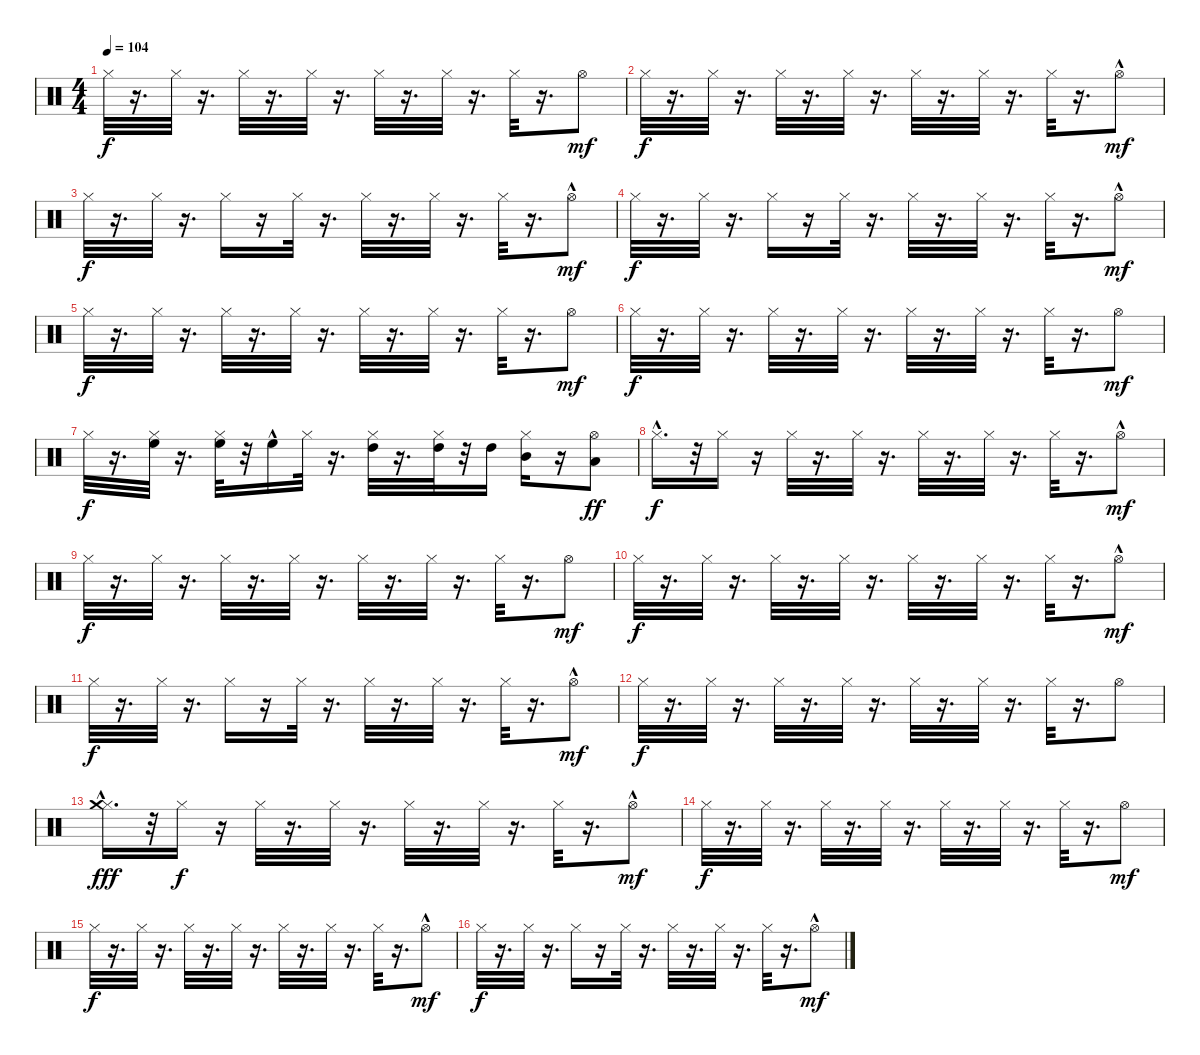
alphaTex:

\track "" {instrument percussion}
\staff {score}
\articulation defaults
\ts (4 4)
\tempo 104
\clef neutral
\ks c "Hi-Hat (closed)".32{dy f}
r.16{d} "Hi-Hat (closed)".32 r.16{d} "Hi-Hat (closed)".32 r.16{d} "Hi-Hat (closed)".32 r.16{d} "Hi-Hat (closed)".32 r.16{d} "Hi-Hat (closed)".32 r.16{d} "Hi-Hat (closed)".32 r.16{d} "Hi-Hat (open)".8{dy mf} |
"Hi-Hat (closed)".32{dy f} r.16{d} "Hi-Hat (closed)".32 r.16{d} "Hi-Hat (closed)".32 r.16{d} "Hi-Hat (closed)".32 r.16{d} "Hi-Hat (closed)".32 r.16{d} "Hi-Hat (closed)".32 r.16{d} "Hi-Hat (closed)".32 r.16{d} "Hi-Hat (open)"{hac}.8{dy mf} |
"Hi-Hat (closed)".32{dy f} r.16{d} "Hi-Hat (closed)".32 r.16{d} "Hi-Hat (closed)".16 r.16 "Hi-Hat (closed)".32 r.16{d} "Hi-Hat (closed)".32 r.16{d} "Hi-Hat (closed)".32 r.16{d} "Hi-Hat (closed)".32 r.16{d} "Hi-Hat (open)"{hac}.8{dy mf} |
"Hi-Hat (closed)".32{dy f} r.16{d} "Hi-Hat (closed)".32 r.16{d} "Hi-Hat (closed)".16 r.16 "Hi-Hat (closed)".32 r.16{d} "Hi-Hat (closed)".32 r.16{d} "Hi-Hat (closed)".32 r.16{d} "Hi-Hat (closed)".32 r.16{d} "Hi-Hat (open)"{hac}.8{dy mf} |
"Hi-Hat (closed)".32{dy f} r.16{d} "Hi-Hat (closed)".32 r.16{d} "Hi-Hat (closed)".32 r.16{d} "Hi-Hat (closed)".32 r.16{d} "Hi-Hat (closed)".32 r.16{d} "Hi-Hat (closed)".32 r.16{d} "Hi-Hat (closed)".32 r.16{d} "Hi-Hat (open)".8{dy mf} |
"Hi-Hat (closed)".32{dy f} r.16{d} "Hi-Hat (closed)".32 r.16{d} "Hi-Hat (closed)".32 r.16{d} "Hi-Hat (closed)".32 r.16{d} "Hi-Hat (closed)".32 r.16{d} "Hi-Hat (closed)".32 r.16{d} "Hi-Hat (closed)".32 r.16{d} "Hi-Hat (open)".8{dy mf} |
"Hi-Hat (closed)".32{dy f} r.16{d} ("High Floor Tom (hit)" "Hi-Hat (closed)").32 r.16{d} ("High Floor Tom (hit)" "Hi-Hat (closed)").32 r.32 "High Floor Tom (hit)"{hac}.16 "Hi-Hat (closed)".32 r.16{d} ("High Tom (hit)" "Hi-Hat (closed)").32 r.16{d} ("High Tom (hit)" "Hi-Hat (closed)").32 r.32 "High Tom (hit)".16 ("Mid Tom (hit)" "Hi-Hat (closed)").16 r.16 ("Low Tom (hit)" "Hi-Hat (open)").8{dy ff} |
"Hi-Hat (closed)"{hac}.16{d dy f} r.32 "Hi-Hat (closed)".16 r.16 "Hi-Hat (closed)".32 r.16{d} "Hi-Hat (closed)".32 r.16{d} "Hi-Hat (closed)".32 r.16{d} "Hi-Hat (closed)".32 r.16{d} "Hi-Hat (closed)".32 r.16{d} "Hi-Hat (open)"{hac}.8{dy mf} |
"Hi-Hat (closed)".32{dy f} r.16{d} "Hi-Hat (closed)".32 r.16{d} "Hi-Hat (closed)".32 r.16{d} "Hi-Hat (closed)".32 r.16{d} "Hi-Hat (closed)".32 r.16{d} "Hi-Hat (closed)".32 r.16{d} "Hi-Hat (closed)".32 r.16{d} "Hi-Hat (open)".8{dy mf} |
"Hi-Hat (closed)".32{dy f} r.16{d} "Hi-Hat (closed)".32 r.16{d} "Hi-Hat (closed)".32 r.16{d} "Hi-Hat (closed)".32 r.16{d} "Hi-Hat (closed)".32 r.16{d} "Hi-Hat (closed)".32 r.16{d} "Hi-Hat (closed)".32 r.16{d} "Hi-Hat (open)"{hac}.8{dy mf} |
"Hi-Hat (closed)".32{dy f} r.16{d} "Hi-Hat (closed)".32 r.16{d} "Hi-Hat (closed)".16 r.16 "Hi-Hat (closed)".32 r.16{d} "Hi-Hat (closed)".32 r.16{d} "Hi-Hat (closed)".32 r.16{d} "Hi-Hat (closed)".32 r.16{d} "Hi-Hat (open)"{hac}.8{dy mf} |
"Hi-Hat (closed)".32{dy f} r.16{d} "Hi-Hat (closed)".32 r.16{d} "Hi-Hat (closed)".32 r.16{d} "Hi-Hat (closed)".32 r.16{d} "Hi-Hat (closed)".32 r.16{d} "Hi-Hat (closed)".32 r.16{d} "Hi-Hat (closed)".32 r.16{d} "Hi-Hat (open)".8 |
("Hi-Hat (closed)"{hac} "Crash medium (hit)"{hac}).16{d dy fff} r.32 "Hi-Hat (closed)".16{dy f} r.16 "Hi-Hat (closed)".32 r.16{d} "Hi-Hat (closed)".32 r.16{d} "Hi-Hat (closed)".32 r.16{d} "Hi-Hat (closed)".32 r.16{d} "Hi-Hat (closed)".32 r.16{d} "Hi-Hat (open)"{hac}.8{dy mf} |
"Hi-Hat (closed)".32{dy f} r.16{d} "Hi-Hat (closed)".32 r.16{d} "Hi-Hat (closed)".32 r.16{d} "Hi-Hat (closed)".32 r.16{d} "Hi-Hat (closed)".32 r.16{d} "Hi-Hat (closed)".32 r.16{d} "Hi-Hat (closed)".32 r.16{d} "Hi-Hat (open)".8{dy mf} |
"Hi-Hat (closed)".32{dy f} r.16{d} "Hi-Hat (closed)".32 r.16{d} "Hi-Hat (closed)".32 r.16{d} "Hi-Hat (closed)".32 r.16{d} "Hi-Hat (closed)".32 r.16{d} "Hi-Hat (closed)".32 r.16{d} "Hi-Hat (closed)".32 r.16{d} "Hi-Hat (open)"{hac}.8{dy mf} |
"Hi-Hat (closed)".32{dy f} r.16{d} "Hi-Hat (closed)".32 r.16{d} "Hi-Hat (closed)".16 r.16 "Hi-Hat (closed)".32 r.16{d} "Hi-Hat (closed)".32 r.16{d} "Hi-Hat (closed)".32 r.16{d} "Hi-Hat (closed)".32 r.16{d} "Hi-Hat (open)"{hac}.8{dy mf}
